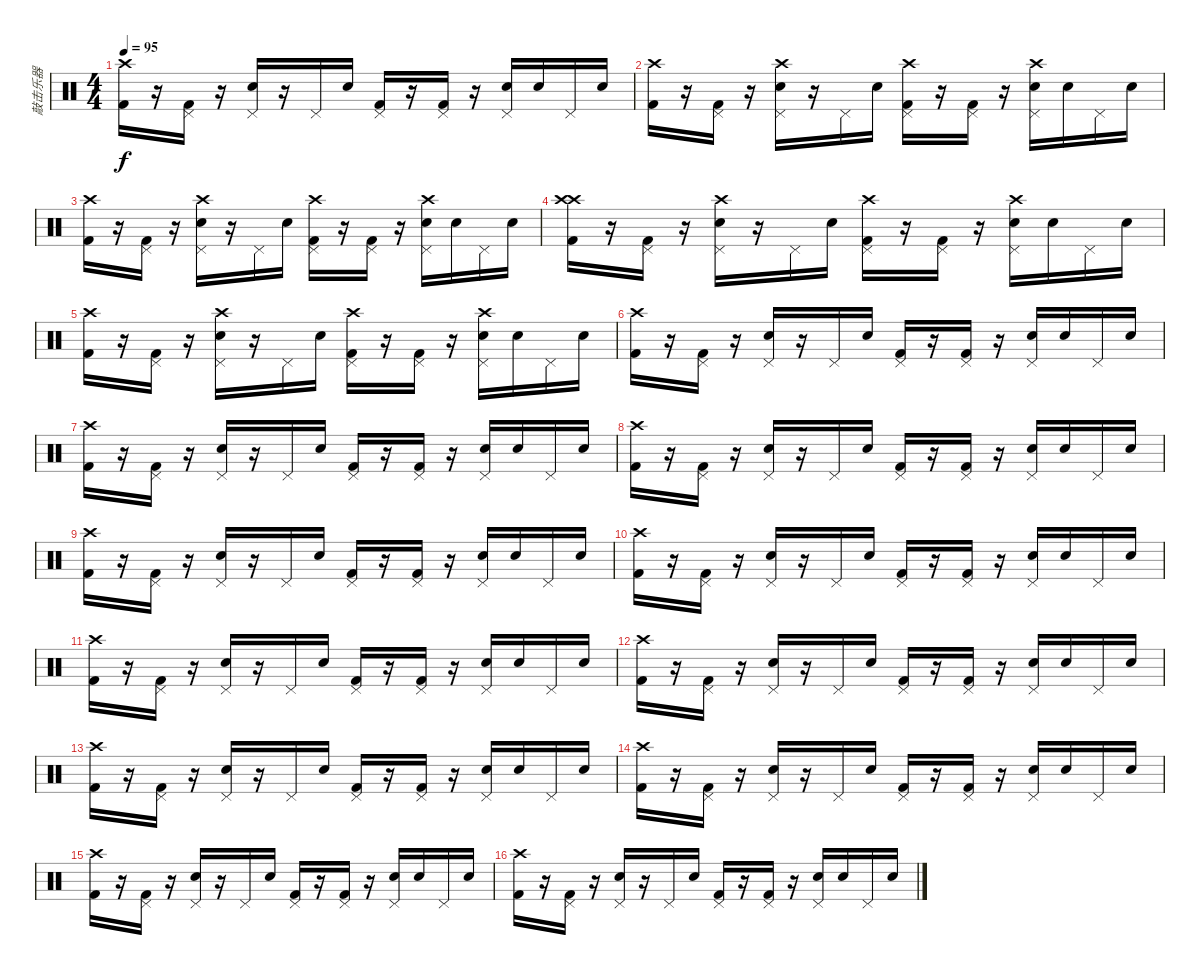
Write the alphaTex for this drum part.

\track ("敲击乐器" "敲击乐器") {instrument percussion}
\staff {score}
\articulation defaults
\ts (4 4)
\tempo 95
\clef neutral
\ks c
("Crash high (hit)" "Kick (hit) 2").16{dy f} r.16 ("Pedal Hi-Hat (hit)" "Kick (hit) 2").16 r.16 ("Pedal Hi-Hat (hit)" "Electric Snare (hit)").16 r.16 "Pedal Hi-Hat (hit)".16 "Electric Snare (hit)".16 ("Pedal Hi-Hat (hit)" "Kick (hit) 2").16 r.16 ("Pedal Hi-Hat (hit)" "Kick (hit) 2").16 r.16 ("Pedal Hi-Hat (hit)" "Electric Snare (hit)").16 "Electric Snare (hit)".16 "Pedal Hi-Hat (hit)".16 "Electric Snare (hit)".16 |
("Crash high (hit)" "Kick (hit) 2").16 r.16 ("Pedal Hi-Hat (hit)" "Kick (hit) 2").16 r.16 ("Pedal Hi-Hat (hit)" "Crash high (hit)" "Electric Snare (hit)").16 r.16 "Pedal Hi-Hat (hit)".16 "Electric Snare (hit)".16 ("Pedal Hi-Hat (hit)" "Crash high (hit)" "Kick (hit) 2").16 r.16 ("Pedal Hi-Hat (hit)" "Kick (hit) 2").16 r.16 ("Pedal Hi-Hat (hit)" "Crash high (hit)" "Electric Snare (hit)").16 "Electric Snare (hit)".16 "Pedal Hi-Hat (hit)".16 "Electric Snare (hit)".16 |
("Crash high (hit)" "Kick (hit) 2").16 r.16 ("Pedal Hi-Hat (hit)" "Kick (hit) 2").16 r.16 ("Pedal Hi-Hat (hit)" "Crash high (hit)" "Electric Snare (hit)").16 r.16 "Pedal Hi-Hat (hit)".16 "Electric Snare (hit)".16 ("Pedal Hi-Hat (hit)" "Crash high (hit)" "Kick (hit) 2").16 r.16 ("Pedal Hi-Hat (hit)" "Kick (hit) 2").16 r.16 ("Pedal Hi-Hat (hit)" "Crash high (hit)" "Electric Snare (hit)").16 "Electric Snare (hit)".16 "Pedal Hi-Hat (hit)".16 "Electric Snare (hit)".16 |
("Crash high (hit)" "Crash high (hit)" "Kick (hit) 2").16 r.16 ("Pedal Hi-Hat (hit)" "Kick (hit) 2").16 r.16 ("Pedal Hi-Hat (hit)" "Crash high (hit)" "Electric Snare (hit)").16 r.16 "Pedal Hi-Hat (hit)".16 "Electric Snare (hit)".16 ("Pedal Hi-Hat (hit)" "Crash high (hit)" "Kick (hit) 2").16 r.16 ("Pedal Hi-Hat (hit)" "Kick (hit) 2").16 r.16 ("Pedal Hi-Hat (hit)" "Crash high (hit)" "Electric Snare (hit)").16 "Electric Snare (hit)".16 "Pedal Hi-Hat (hit)".16 "Electric Snare (hit)".16 |
("Crash high (hit)" "Kick (hit) 2").16 r.16 ("Pedal Hi-Hat (hit)" "Kick (hit) 2").16 r.16 ("Pedal Hi-Hat (hit)" "Crash high (hit)" "Electric Snare (hit)").16 r.16 "Pedal Hi-Hat (hit)".16 "Electric Snare (hit)".16 ("Pedal Hi-Hat (hit)" "Crash high (hit)" "Kick (hit) 2").16 r.16 ("Pedal Hi-Hat (hit)" "Kick (hit) 2").16 r.16 ("Pedal Hi-Hat (hit)" "Crash high (hit)" "Electric Snare (hit)").16 "Electric Snare (hit)".16 "Pedal Hi-Hat (hit)".16 "Electric Snare (hit)".16 |
("Crash high (hit)" "Kick (hit) 2").16 r.16 ("Pedal Hi-Hat (hit)" "Kick (hit) 2").16 r.16 ("Pedal Hi-Hat (hit)" "Electric Snare (hit)").16 r.16 "Pedal Hi-Hat (hit)".16 "Electric Snare (hit)".16 ("Pedal Hi-Hat (hit)" "Kick (hit) 2").16 r.16 ("Pedal Hi-Hat (hit)" "Kick (hit) 2").16 r.16 ("Pedal Hi-Hat (hit)" "Electric Snare (hit)").16 "Electric Snare (hit)".16 "Pedal Hi-Hat (hit)".16 "Electric Snare (hit)".16 |
("Crash high (hit)" "Kick (hit) 2").16 r.16 ("Pedal Hi-Hat (hit)" "Kick (hit) 2").16 r.16 ("Pedal Hi-Hat (hit)" "Electric Snare (hit)").16 r.16 "Pedal Hi-Hat (hit)".16 "Electric Snare (hit)".16 ("Pedal Hi-Hat (hit)" "Kick (hit) 2").16 r.16 ("Pedal Hi-Hat (hit)" "Kick (hit) 2").16 r.16 ("Pedal Hi-Hat (hit)" "Electric Snare (hit)").16 "Electric Snare (hit)".16 "Pedal Hi-Hat (hit)".16 "Electric Snare (hit)".16 |
("Crash high (hit)" "Kick (hit) 2").16 r.16 ("Pedal Hi-Hat (hit)" "Kick (hit) 2").16 r.16 ("Pedal Hi-Hat (hit)" "Electric Snare (hit)").16 r.16 "Pedal Hi-Hat (hit)".16 "Electric Snare (hit)".16 ("Pedal Hi-Hat (hit)" "Kick (hit) 2").16 r.16 ("Pedal Hi-Hat (hit)" "Kick (hit) 2").16 r.16 ("Pedal Hi-Hat (hit)" "Electric Snare (hit)").16 "Electric Snare (hit)".16 "Pedal Hi-Hat (hit)".16 "Electric Snare (hit)".16 |
("Crash high (hit)" "Kick (hit) 2").16 r.16 ("Pedal Hi-Hat (hit)" "Kick (hit) 2").16 r.16 ("Pedal Hi-Hat (hit)" "Electric Snare (hit)").16 r.16 "Pedal Hi-Hat (hit)".16 "Electric Snare (hit)".16 ("Pedal Hi-Hat (hit)" "Kick (hit) 2").16 r.16 ("Pedal Hi-Hat (hit)" "Kick (hit) 2").16 r.16 ("Pedal Hi-Hat (hit)" "Electric Snare (hit)").16 "Electric Snare (hit)".16 "Pedal Hi-Hat (hit)".16 "Electric Snare (hit)".16 |
("Crash high (hit)" "Kick (hit) 2").16 r.16 ("Pedal Hi-Hat (hit)" "Kick (hit) 2").16 r.16 ("Pedal Hi-Hat (hit)" "Electric Snare (hit)").16 r.16 "Pedal Hi-Hat (hit)".16 "Electric Snare (hit)".16 ("Pedal Hi-Hat (hit)" "Kick (hit) 2").16 r.16 ("Pedal Hi-Hat (hit)" "Kick (hit) 2").16 r.16 ("Pedal Hi-Hat (hit)" "Electric Snare (hit)").16 "Electric Snare (hit)".16 "Pedal Hi-Hat (hit)".16 "Electric Snare (hit)".16 |
("Crash high (hit)" "Kick (hit) 2").16 r.16 ("Pedal Hi-Hat (hit)" "Kick (hit) 2").16 r.16 ("Pedal Hi-Hat (hit)" "Electric Snare (hit)").16 r.16 "Pedal Hi-Hat (hit)".16 "Electric Snare (hit)".16 ("Pedal Hi-Hat (hit)" "Kick (hit) 2").16 r.16 ("Pedal Hi-Hat (hit)" "Kick (hit) 2").16 r.16 ("Pedal Hi-Hat (hit)" "Electric Snare (hit)").16 "Electric Snare (hit)".16 "Pedal Hi-Hat (hit)".16 "Electric Snare (hit)".16 |
("Crash high (hit)" "Kick (hit) 2").16 r.16 ("Pedal Hi-Hat (hit)" "Kick (hit) 2").16 r.16 ("Pedal Hi-Hat (hit)" "Electric Snare (hit)").16 r.16 "Pedal Hi-Hat (hit)".16 "Electric Snare (hit)".16 ("Pedal Hi-Hat (hit)" "Kick (hit) 2").16 r.16 ("Pedal Hi-Hat (hit)" "Kick (hit) 2").16 r.16 ("Pedal Hi-Hat (hit)" "Electric Snare (hit)").16 "Electric Snare (hit)".16 "Pedal Hi-Hat (hit)".16 "Electric Snare (hit)".16 |
("Crash high (hit)" "Kick (hit) 2").16 r.16 ("Pedal Hi-Hat (hit)" "Kick (hit) 2").16 r.16 ("Pedal Hi-Hat (hit)" "Electric Snare (hit)").16 r.16 "Pedal Hi-Hat (hit)".16 "Electric Snare (hit)".16 ("Pedal Hi-Hat (hit)" "Kick (hit) 2").16 r.16 ("Pedal Hi-Hat (hit)" "Kick (hit) 2").16 r.16 ("Pedal Hi-Hat (hit)" "Electric Snare (hit)").16 "Electric Snare (hit)".16 "Pedal Hi-Hat (hit)".16 "Electric Snare (hit)".16 |
("Crash high (hit)" "Kick (hit) 2").16 r.16 ("Pedal Hi-Hat (hit)" "Kick (hit) 2").16 r.16 ("Pedal Hi-Hat (hit)" "Electric Snare (hit)").16 r.16 "Pedal Hi-Hat (hit)".16 "Electric Snare (hit)".16 ("Pedal Hi-Hat (hit)" "Kick (hit) 2").16 r.16 ("Pedal Hi-Hat (hit)" "Kick (hit) 2").16 r.16 ("Pedal Hi-Hat (hit)" "Electric Snare (hit)").16 "Electric Snare (hit)".16 "Pedal Hi-Hat (hit)".16 "Electric Snare (hit)".16 |
("Crash high (hit)" "Kick (hit) 2").16 r.16 ("Pedal Hi-Hat (hit)" "Kick (hit) 2").16 r.16 ("Pedal Hi-Hat (hit)" "Electric Snare (hit)").16 r.16 "Pedal Hi-Hat (hit)".16 "Electric Snare (hit)".16 ("Pedal Hi-Hat (hit)" "Kick (hit) 2").16 r.16 ("Pedal Hi-Hat (hit)" "Kick (hit) 2").16 r.16 ("Pedal Hi-Hat (hit)" "Electric Snare (hit)").16 "Electric Snare (hit)".16 "Pedal Hi-Hat (hit)".16 "Electric Snare (hit)".16 |
("Crash high (hit)" "Kick (hit) 2").16 r.16 ("Pedal Hi-Hat (hit)" "Kick (hit) 2").16 r.16 ("Pedal Hi-Hat (hit)" "Electric Snare (hit)").16 r.16 "Pedal Hi-Hat (hit)".16 "Electric Snare (hit)".16 ("Pedal Hi-Hat (hit)" "Kick (hit) 2").16 r.16 ("Pedal Hi-Hat (hit)" "Kick (hit) 2").16 r.16 ("Pedal Hi-Hat (hit)" "Electric Snare (hit)").16 "Electric Snare (hit)".16 "Pedal Hi-Hat (hit)".16 "Electric Snare (hit)".16
